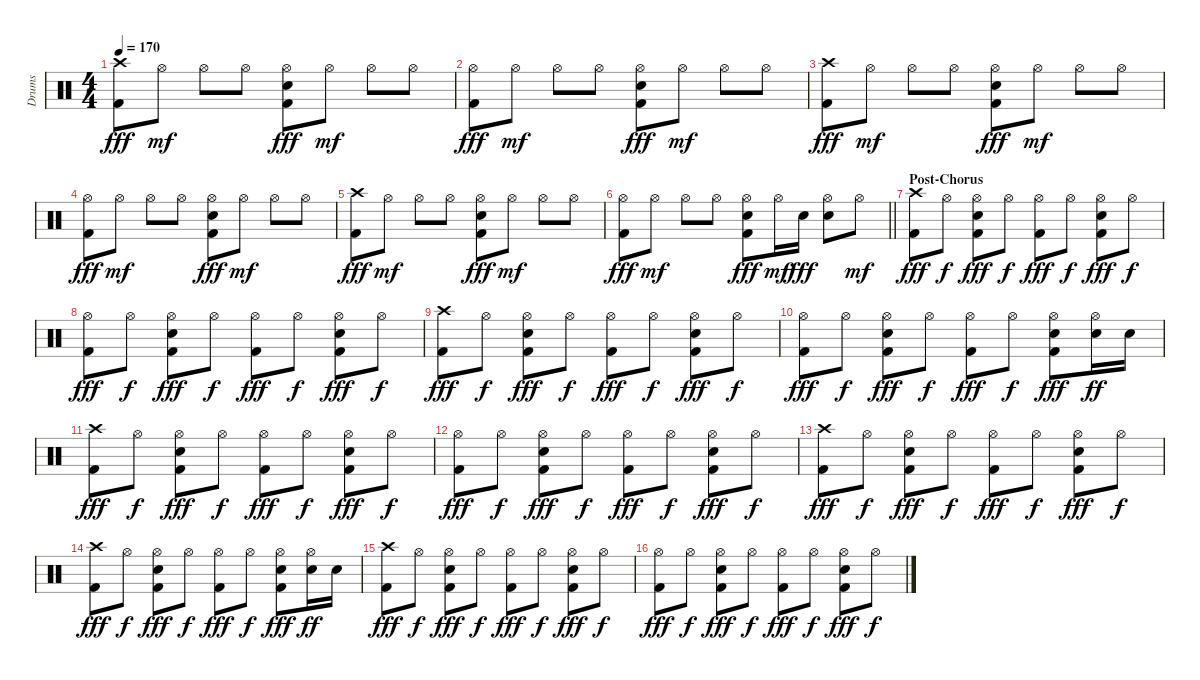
\track ("Drums" "Drums") {instrument percussion}
\staff {score}
\articulation defaults
\ts (4 4)
\tempo 170
\clef neutral
\ks c
("Crash high (hit)" "Kick (hit) 2").8{dy fff} "Hi-Hat (open)".8{dy mf} "Hi-Hat (open)".8 "Hi-Hat (open)".8 ("Hi-Hat (open)" "Snare (hit) 2" "Kick (hit) 2").8{dy fff} "Hi-Hat (open)".8{dy mf} "Hi-Hat (open)".8 "Hi-Hat (open)".8 |
("Hi-Hat (open)" "Kick (hit) 2").8{dy fff} "Hi-Hat (open)".8{dy mf} "Hi-Hat (open)".8 "Hi-Hat (open)".8 ("Hi-Hat (open)" "Snare (hit) 2" "Kick (hit) 2").8{dy fff} "Hi-Hat (open)".8{dy mf} "Hi-Hat (open)".8 "Hi-Hat (open)".8 |
("Crash high (hit)" "Kick (hit) 2").8{dy fff} "Hi-Hat (open)".8{dy mf} "Hi-Hat (open)".8 "Hi-Hat (open)".8 ("Hi-Hat (open)" "Snare (hit) 2" "Kick (hit) 2").8{dy fff} "Hi-Hat (open)".8{dy mf} "Hi-Hat (open)".8 "Hi-Hat (open)".8 |
("Hi-Hat (open)" "Kick (hit) 2").8{dy fff} "Hi-Hat (open)".8{dy mf} "Hi-Hat (open)".8 "Hi-Hat (open)".8 ("Hi-Hat (open)" "Snare (hit) 2" "Kick (hit) 2").8{dy fff} "Hi-Hat (open)".8{dy mf} "Hi-Hat (open)".8 "Hi-Hat (open)".8 |
("Crash high (hit)" "Kick (hit) 2").8{dy fff} "Hi-Hat (open)".8{dy mf} "Hi-Hat (open)".8 "Hi-Hat (open)".8 ("Hi-Hat (open)" "Snare (hit) 2" "Kick (hit) 2").8{dy fff} "Hi-Hat (open)".8{dy mf} "Hi-Hat (open)".8 "Hi-Hat (open)".8 |
\barLineRight lightlight
("Hi-Hat (open)" "Kick (hit) 2").8{dy fff} "Hi-Hat (open)".8{dy mf} "Hi-Hat (open)".8 "Hi-Hat (open)".8 ("Hi-Hat (open)" "Snare (hit) 2" "Kick (hit) 2").8{dy fff} "Hi-Hat (open)".16{dy mf} "Snare (hit) 2".16{dy fff} ("Hi-Hat (open)" "Snare (hit) 2").8 "Hi-Hat (open)".8{dy mf} |
\section ("" "Post-Chorus")
("Crash high (hit)" "Kick (hit) 2").8{dy fff} "Hi-Hat (open)".8{dy f} ("Hi-Hat (open)" "Snare (hit) 2" "Kick (hit) 2").8{dy fff} "Hi-Hat (open)".8{dy f} ("Hi-Hat (open)" "Kick (hit) 2").8{dy fff} "Hi-Hat (open)".8{dy f} ("Hi-Hat (open)" "Snare (hit) 2" "Kick (hit) 2").8{dy fff} "Hi-Hat (open)".8{dy f} |
("Hi-Hat (open)" "Kick (hit) 2").8{dy fff} "Hi-Hat (open)".8{dy f} ("Hi-Hat (open)" "Snare (hit) 2" "Kick (hit) 2").8{dy fff} "Hi-Hat (open)".8{dy f} ("Hi-Hat (open)" "Kick (hit) 2").8{dy fff} "Hi-Hat (open)".8{dy f} ("Hi-Hat (open)" "Snare (hit) 2" "Kick (hit) 2").8{dy fff} "Hi-Hat (open)".8{dy f} |
("Crash high (hit)" "Kick (hit) 2").8{dy fff} "Hi-Hat (open)".8{dy f} ("Hi-Hat (open)" "Snare (hit) 2" "Kick (hit) 2").8{dy fff} "Hi-Hat (open)".8{dy f} ("Hi-Hat (open)" "Kick (hit) 2").8{dy fff} "Hi-Hat (open)".8{dy f} ("Hi-Hat (open)" "Snare (hit) 2" "Kick (hit) 2").8{dy fff} "Hi-Hat (open)".8{dy f} |
("Hi-Hat (open)" "Kick (hit) 2").8{dy fff} "Hi-Hat (open)".8{dy f} ("Hi-Hat (open)" "Snare (hit) 2" "Kick (hit) 2").8{dy fff} "Hi-Hat (open)".8{dy f} ("Hi-Hat (open)" "Kick (hit) 2").8{dy fff} "Hi-Hat (open)".8{dy f} ("Hi-Hat (open)" "Snare (hit) 2" "Kick (hit) 2").8{dy fff} ("Hi-Hat (open)" "Snare (hit) 2").16{dy ff} "Snare (hit) 2".16 |
("Crash high (hit)" "Kick (hit) 2").8{dy fff} "Hi-Hat (open)".8{dy f} ("Hi-Hat (open)" "Snare (hit) 2" "Kick (hit) 2").8{dy fff} "Hi-Hat (open)".8{dy f} ("Hi-Hat (open)" "Kick (hit) 2").8{dy fff} "Hi-Hat (open)".8{dy f} ("Hi-Hat (open)" "Snare (hit) 2" "Kick (hit) 2").8{dy fff} "Hi-Hat (open)".8{dy f} |
("Hi-Hat (open)" "Kick (hit) 2").8{dy fff} "Hi-Hat (open)".8{dy f} ("Hi-Hat (open)" "Snare (hit) 2" "Kick (hit) 2").8{dy fff} "Hi-Hat (open)".8{dy f} ("Hi-Hat (open)" "Kick (hit) 2").8{dy fff} "Hi-Hat (open)".8{dy f} ("Hi-Hat (open)" "Snare (hit) 2" "Kick (hit) 2").8{dy fff} "Hi-Hat (open)".8{dy f} |
("Crash high (hit)" "Kick (hit) 2").8{dy fff} "Hi-Hat (open)".8{dy f} ("Hi-Hat (open)" "Snare (hit) 2" "Kick (hit) 2").8{dy fff} "Hi-Hat (open)".8{dy f} ("Hi-Hat (open)" "Kick (hit) 2").8{dy fff} "Hi-Hat (open)".8{dy f} ("Hi-Hat (open)" "Snare (hit) 2" "Kick (hit) 2").8{dy fff} "Hi-Hat (open)".8{dy f} |
("Crash high (hit)" "Kick (hit) 2").8{dy fff} "Hi-Hat (open)".8{dy f} ("Hi-Hat (open)" "Snare (hit) 2" "Kick (hit) 2").8{dy fff} "Hi-Hat (open)".8{dy f} ("Hi-Hat (open)" "Kick (hit) 2").8{dy fff} "Hi-Hat (open)".8{dy f} ("Hi-Hat (open)" "Snare (hit) 2" "Kick (hit) 2").8{dy fff} ("Hi-Hat (open)" "Snare (hit) 2").16{dy ff} "Snare (hit) 2".16 |
("Crash high (hit)" "Kick (hit) 2").8{dy fff} "Hi-Hat (open)".8{dy f} ("Hi-Hat (open)" "Snare (hit) 2" "Kick (hit) 2").8{dy fff} "Hi-Hat (open)".8{dy f} ("Hi-Hat (open)" "Kick (hit) 2").8{dy fff} "Hi-Hat (open)".8{dy f} ("Hi-Hat (open)" "Snare (hit) 2" "Kick (hit) 2").8{dy fff} "Hi-Hat (open)".8{dy f} |
("Hi-Hat (open)" "Kick (hit) 2").8{dy fff} "Hi-Hat (open)".8{dy f} ("Hi-Hat (open)" "Snare (hit) 2" "Kick (hit) 2").8{dy fff} "Hi-Hat (open)".8{dy f} ("Hi-Hat (open)" "Kick (hit) 2").8{dy fff} "Hi-Hat (open)".8{dy f} ("Hi-Hat (open)" "Snare (hit) 2" "Kick (hit) 2").8{dy fff} "Hi-Hat (open)".8{dy f}
